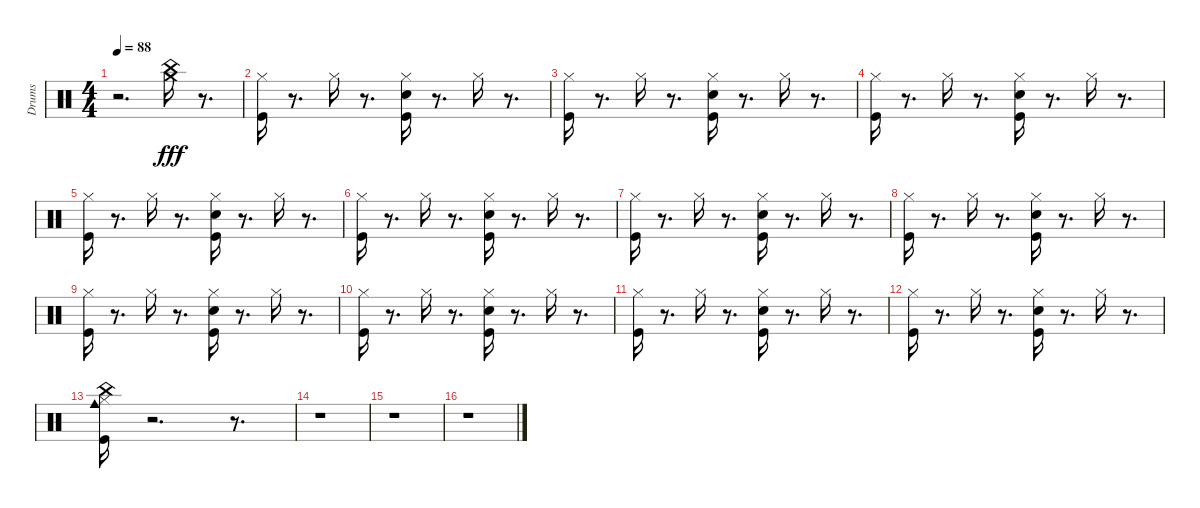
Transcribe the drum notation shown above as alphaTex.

\track ("Drums" "Drums") {instrument percussion}
\staff {score}
\articulation defaults
\ts (4 4)
\tempo 88
\clef neutral
\ks c
r.2{d dy fff} ("Crash medium (hit)" "China (hit)").16 r.8{d} |
("Hi-Hat (closed)" "Kick (hit)").16 r.8{d} "Hi-Hat (closed)".16 r.8{d} ("Hi-Hat (closed)" "Electric Snare (hit)" "Kick (hit)").16 r.8{d} "Hi-Hat (closed)".16 r.8{d} |
("Hi-Hat (closed)" "Kick (hit)").16 r.8{d} "Hi-Hat (closed)".16 r.8{d} ("Hi-Hat (closed)" "Electric Snare (hit)" "Kick (hit)").16 r.8{d} "Hi-Hat (closed)".16 r.8{d} |
("Hi-Hat (closed)" "Kick (hit)").16 r.8{d} "Hi-Hat (closed)".16 r.8{d} ("Hi-Hat (closed)" "Electric Snare (hit)" "Kick (hit)").16 r.8{d} "Hi-Hat (closed)".16 r.8{d} |
("Hi-Hat (closed)" "Kick (hit)").16 r.8{d} "Hi-Hat (closed)".16 r.8{d} ("Hi-Hat (closed)" "Electric Snare (hit)" "Kick (hit)").16 r.8{d} "Hi-Hat (closed)".16 r.8{d} |
("Hi-Hat (closed)" "Kick (hit)").16 r.8{d} "Hi-Hat (closed)".16 r.8{d} ("Hi-Hat (closed)" "Electric Snare (hit)" "Kick (hit)").16 r.8{d} "Hi-Hat (closed)".16 r.8{d} |
("Hi-Hat (closed)" "Kick (hit)").16 r.8{d} "Hi-Hat (closed)".16 r.8{d} ("Hi-Hat (closed)" "Electric Snare (hit)" "Kick (hit)").16 r.8{d} "Hi-Hat (closed)".16 r.8{d} |
("Hi-Hat (closed)" "Kick (hit)").16 r.8{d} "Hi-Hat (closed)".16 r.8{d} ("Hi-Hat (closed)" "Electric Snare (hit)" "Kick (hit)").16 r.8{d} "Hi-Hat (closed)".16 r.8{d} |
("Hi-Hat (closed)" "Kick (hit)").16 r.8{d} "Hi-Hat (closed)".16 r.8{d} ("Hi-Hat (closed)" "Electric Snare (hit)" "Kick (hit)").16 r.8{d} "Hi-Hat (closed)".16 r.8{d} |
("Hi-Hat (closed)" "Kick (hit)").16 r.8{d} "Hi-Hat (closed)".16 r.8{d} ("Hi-Hat (closed)" "Electric Snare (hit)" "Kick (hit)").16 r.8{d} "Hi-Hat (closed)".16 r.8{d} |
("Hi-Hat (closed)" "Kick (hit)").16 r.8{d} "Hi-Hat (closed)".16 r.8{d} ("Hi-Hat (closed)" "Electric Snare (hit)" "Kick (hit)").16 r.8{d} "Hi-Hat (closed)".16 r.8{d} |
("Hi-Hat (closed)" "Kick (hit)").16 r.8{d} "Hi-Hat (closed)".16 r.8{d} ("Hi-Hat (closed)" "Electric Snare (hit)" "Kick (hit)").16 r.8{d} "Hi-Hat (closed)".16 r.8{d} |
("Hi-Hat (closed)" "Kick (hit)" "Cowbell medium (hit)" "China (hit)").16 r.2{d} r.8{d} |
r.1 |
r.1 |
r.1
